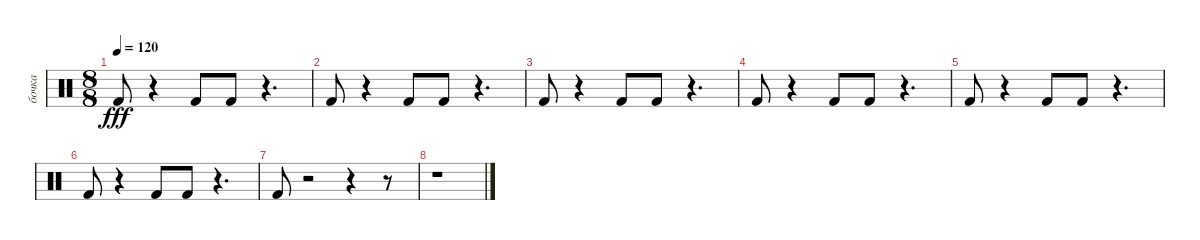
\track ("бочка" "бочка") {instrument percussion}
\staff {score}
\articulation defaults
\ts (8 8)
\tempo 120
\clef neutral
\ks c "Kick (hit) 2".8{dy fff}
r.4 "Kick (hit) 2".8 "Kick (hit) 2".8 r.4{d} |
"Kick (hit) 2".8 r.4 "Kick (hit) 2".8 "Kick (hit) 2".8 r.4{d} |
"Kick (hit) 2".8 r.4 "Kick (hit) 2".8 "Kick (hit) 2".8 r.4{d} |
"Kick (hit) 2".8 r.4 "Kick (hit) 2".8 "Kick (hit) 2".8 r.4{d} |
"Kick (hit) 2".8 r.4 "Kick (hit) 2".8 "Kick (hit) 2".8 r.4{d} |
"Kick (hit) 2".8 r.4 "Kick (hit) 2".8 "Kick (hit) 2".8 r.4{d} |
"Kick (hit) 2".8 r.2 r.4 r.8 |
r.1
